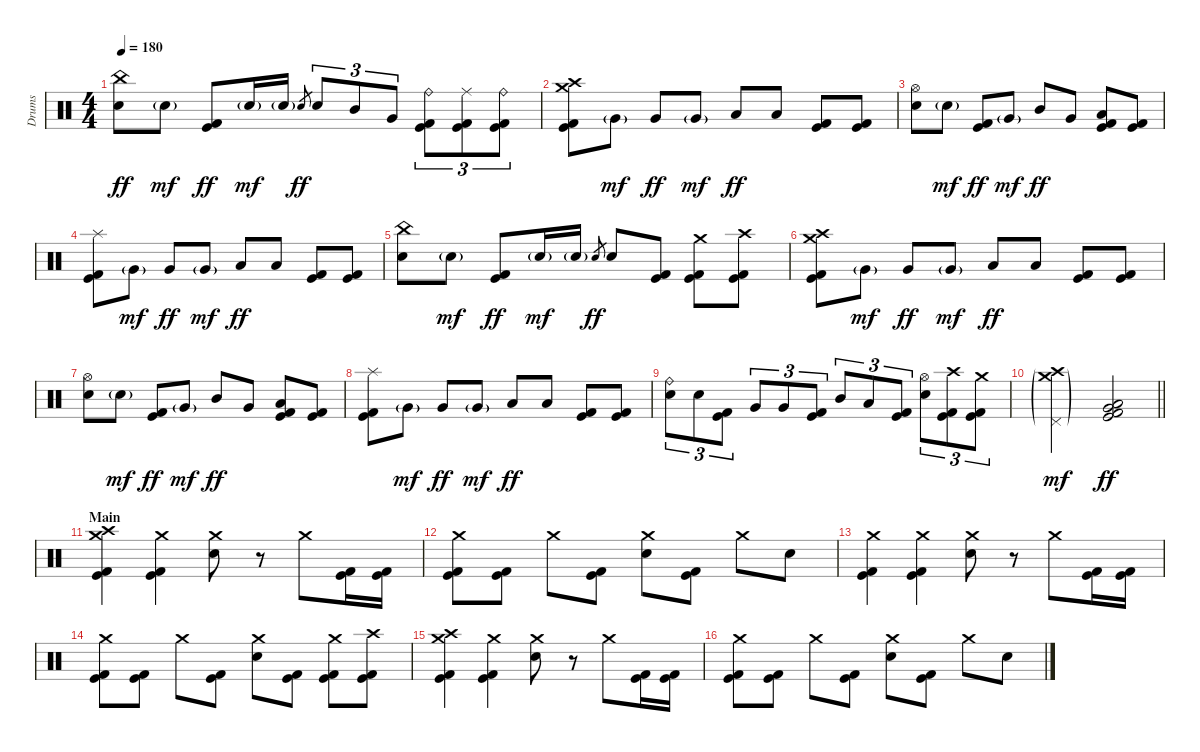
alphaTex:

\track ("Drums" "Drums") {instrument percussion}
\staff {score}
\articulation defaults
\ts (4 4)
\tempo 180
\clef neutral
\ks c
("China (hit)" "Electric Snare (hit)").8{dy ff} "Electric Snare (hit)"{g}.8{dy mf} ("Kick (hit)" "Kick (hit) 2").8{dy ff} "Electric Snare (hit)"{g}.16{dy mf} "Electric Snare (hit)"{g}.16 "Electric Snare (hit)".8{gr dy ff} "Electric Snare (hit)".8{tu (3 2)} "Mid Tom (hit)".8{tu (3 2)} "Very Low Tom (hit)".8{tu (3 2)} ("Ride (bell)" "Kick (hit)" "Kick (hit) 2").8{tu (3 2)} ("Ride (middle)" "Kick (hit)" "Kick (hit) 2").8{tu (3 2)} ("Ride (bell)" "Kick (hit)" "Kick (hit) 2").8{tu (3 2)} |
("Crash medium (hit)" "Crash high (hit)" "Kick (hit)" "Kick (hit) 2").8 "Very Low Tom (hit)"{g}.8{dy mf} "Very Low Tom (hit)".8{dy ff} "Very Low Tom (hit)"{g}.8{dy mf} "Low Floor Tom (hit)".8{dy ff} "Low Floor Tom (hit)".8 ("Kick (hit)" "Kick (hit) 2").8 ("Kick (hit)" "Kick (hit) 2").8 |
("Hi-Hat (open)" "Electric Snare (hit)").8 "Electric Snare (hit)"{g}.8{dy mf} ("Kick (hit)" "Kick (hit) 2").8{dy ff} "Very Low Tom (hit)"{g}.8{dy mf} "Mid Tom (hit)".8{dy ff} "Very Low Tom (hit)".8 ("Low Floor Tom (hit)" "Kick (hit)" "Kick (hit) 2").8 ("Kick (hit)" "Kick (hit) 2").8 |
("Splash (hit)" "Kick (hit)" "Kick (hit) 2").8 "Very Low Tom (hit)"{g}.8{dy mf} "Very Low Tom (hit)".8{dy ff} "Very Low Tom (hit)"{g}.8{dy mf} "Low Floor Tom (hit)".8{dy ff} "Low Floor Tom (hit)".8 ("Kick (hit)" "Kick (hit) 2").8 ("Kick (hit)" "Kick (hit) 2").8 |
("China (hit)" "Electric Snare (hit)").8 "Electric Snare (hit)"{g}.8{dy mf} ("Kick (hit)" "Kick (hit) 2").8{dy ff} "Electric Snare (hit)"{g}.16{dy mf} "Electric Snare (hit)"{g}.16 "Electric Snare (hit)".8{gr dy ff} "Electric Snare (hit)".8 ("Kick (hit)" "Kick (hit) 2").8 ("Crash medium (hit)" "Kick (hit)" "Kick (hit) 2").8 ("Crash high (hit)" "Kick (hit)" "Kick (hit) 2").8 |
("Crash medium (hit)" "Crash high (hit)" "Kick (hit)" "Kick (hit) 2").8 "Very Low Tom (hit)"{g}.8{dy mf} "Very Low Tom (hit)".8{dy ff} "Very Low Tom (hit)"{g}.8{dy mf} "Low Floor Tom (hit)".8{dy ff} "Low Floor Tom (hit)".8 ("Kick (hit)" "Kick (hit) 2").8 ("Kick (hit)" "Kick (hit) 2").8 |
("Hi-Hat (open)" "Electric Snare (hit)").8 "Electric Snare (hit)"{g}.8{dy mf} ("Kick (hit)" "Kick (hit) 2").8{dy ff} "Very Low Tom (hit)"{g}.8{dy mf} "Mid Tom (hit)".8{dy ff} "Very Low Tom (hit)".8 ("Low Floor Tom (hit)" "Kick (hit)" "Kick (hit) 2").8 ("Kick (hit)" "Kick (hit) 2").8 |
("Splash (hit)" "Kick (hit)" "Kick (hit) 2").8 "Very Low Tom (hit)"{g}.8{dy mf} "Very Low Tom (hit)".8{dy ff} "Very Low Tom (hit)"{g}.8{dy mf} "Low Floor Tom (hit)".8{dy ff} "Low Floor Tom (hit)".8 ("Kick (hit)" "Kick (hit) 2").8 ("Kick (hit)" "Kick (hit) 2").8 |
("Ride (bell)" "Electric Snare (hit)").8{tu (3 2)} "Electric Snare (hit)".8{tu (3 2)} ("Kick (hit)" "Kick (hit) 2").8{tu (3 2)} "Very Low Tom (hit)".8{tu (3 2)} "Very Low Tom (hit)".8{tu (3 2)} ("Kick (hit)" "Kick (hit) 2").8{tu (3 2)} "Mid Tom (hit)".8{tu (3 2)} "Low Floor Tom (hit)".8{tu (3 2)} ("Kick (hit)" "Kick (hit) 2").8{tu (3 2)} ("Hi-Hat (open)" "Electric Snare (hit)").8{tu (3 2)} ("Crash high (hit)" "Kick (hit)" "Kick (hit) 2").8{tu (3 2)} ("Crash medium (hit)" "Kick (hit)" "Kick (hit) 2").8{tu (3 2)} |
\barLineRight lightlight
("Crash medium (hit)"{g} "Crash high (hit)"{g} "Pedal Hi-Hat (hit)"{g}).2{dy mf} ("Low Floor Tom (hit)" "Very Low Tom (hit)" "Kick (hit)" "Kick (hit) 2").2{dy ff} |
\section ("" "Main")
("Crash medium (hit)" "Crash high (hit)" "Kick (hit)" "Kick (hit) 2").4 ("Crash medium (hit)" "Kick (hit)" "Kick (hit) 2").4 ("Crash medium (hit)" "Electric Snare (hit)").8 r.8 "Crash medium (hit)".8 ("Kick (hit)" "Kick (hit) 2").16 ("Kick (hit)" "Kick (hit) 2").16 |
("Crash medium (hit)" "Kick (hit)" "Kick (hit) 2").8 ("Kick (hit)" "Kick (hit) 2").8 "Crash medium (hit)".8 ("Kick (hit)" "Kick (hit) 2").8 ("Crash medium (hit)" "Electric Snare (hit)").8 ("Kick (hit)" "Kick (hit) 2").8 "Crash medium (hit)".8 "Electric Snare (hit)".8 |
("Crash medium (hit)" "Kick (hit)" "Kick (hit) 2").4 ("Crash medium (hit)" "Kick (hit)" "Kick (hit) 2").4 ("Crash medium (hit)" "Electric Snare (hit)").8 r.8 "Crash medium (hit)".8 ("Kick (hit)" "Kick (hit) 2").16 ("Kick (hit)" "Kick (hit) 2").16 |
("Crash medium (hit)" "Kick (hit)" "Kick (hit) 2").8 ("Kick (hit)" "Kick (hit) 2").8 "Crash medium (hit)".8 ("Kick (hit)" "Kick (hit) 2").8 ("Crash medium (hit)" "Electric Snare (hit)").8 ("Kick (hit)" "Kick (hit) 2").8 ("Crash medium (hit)" "Kick (hit)" "Kick (hit) 2").8 ("Crash high (hit)" "Kick (hit)" "Kick (hit) 2").8 |
("Crash medium (hit)" "Crash high (hit)" "Kick (hit)" "Kick (hit) 2").4 ("Crash medium (hit)" "Kick (hit)" "Kick (hit) 2").4 ("Crash medium (hit)" "Electric Snare (hit)").8 r.8 "Crash medium (hit)".8 ("Kick (hit)" "Kick (hit) 2").16 ("Kick (hit)" "Kick (hit) 2").16 |
("Crash medium (hit)" "Kick (hit)" "Kick (hit) 2").8 ("Kick (hit)" "Kick (hit) 2").8 "Crash medium (hit)".8 ("Kick (hit)" "Kick (hit) 2").8 ("Crash medium (hit)" "Electric Snare (hit)").8 ("Kick (hit)" "Kick (hit) 2").8 "Crash medium (hit)".8 "Electric Snare (hit)".8
